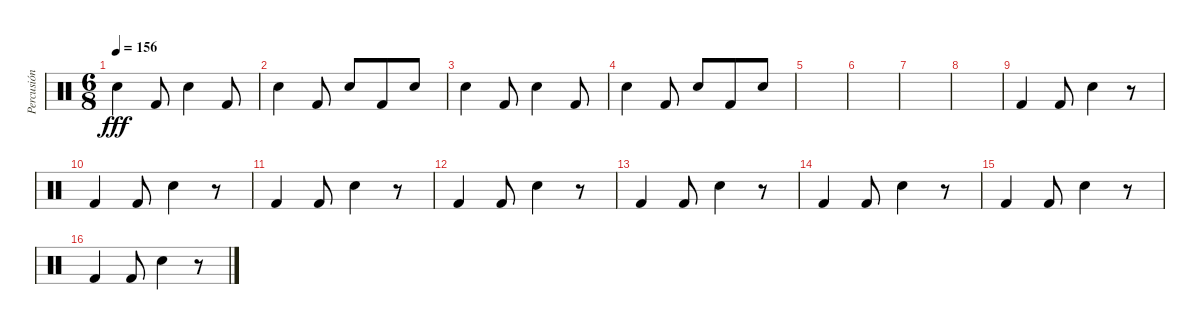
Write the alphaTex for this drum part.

\track ("Percusión" "Percusión") {instrument percussion}
\staff {score}
\articulation defaults
\ts (6 8)
\tempo 156
\clef neutral
\ks c "Snare (hit) 2".4{dy fff} "Kick (hit) 2".8 "Snare (hit) 2".4 "Kick (hit) 2".8
|
"Snare (hit) 2".4 "Kick (hit) 2".8 "Snare (hit) 2".8 "Kick (hit) 2".8 "Snare (hit) 2".8 |
"Snare (hit) 2".4 "Kick (hit) 2".8 "Snare (hit) 2".4 "Kick (hit) 2".8 |
"Snare (hit) 2".4 "Kick (hit) 2".8 "Snare (hit) 2".8 "Kick (hit) 2".8 "Snare (hit) 2".8 |
|
|
|
|
"Kick (hit) 2".4 "Kick (hit) 2".8 "Snare (hit) 2".4 r.8 |
"Kick (hit) 2".4 "Kick (hit) 2".8 "Snare (hit) 2".4 r.8 |
"Kick (hit) 2".4 "Kick (hit) 2".8 "Snare (hit) 2".4 r.8 |
"Kick (hit) 2".4 "Kick (hit) 2".8 "Snare (hit) 2".4 r.8 |
"Kick (hit) 2".4 "Kick (hit) 2".8 "Snare (hit) 2".4 r.8 |
"Kick (hit) 2".4 "Kick (hit) 2".8 "Snare (hit) 2".4 r.8 |
"Kick (hit) 2".4 "Kick (hit) 2".8 "Snare (hit) 2".4 r.8 |
"Kick (hit) 2".4 "Kick (hit) 2".8 "Snare (hit) 2".4 r.8
